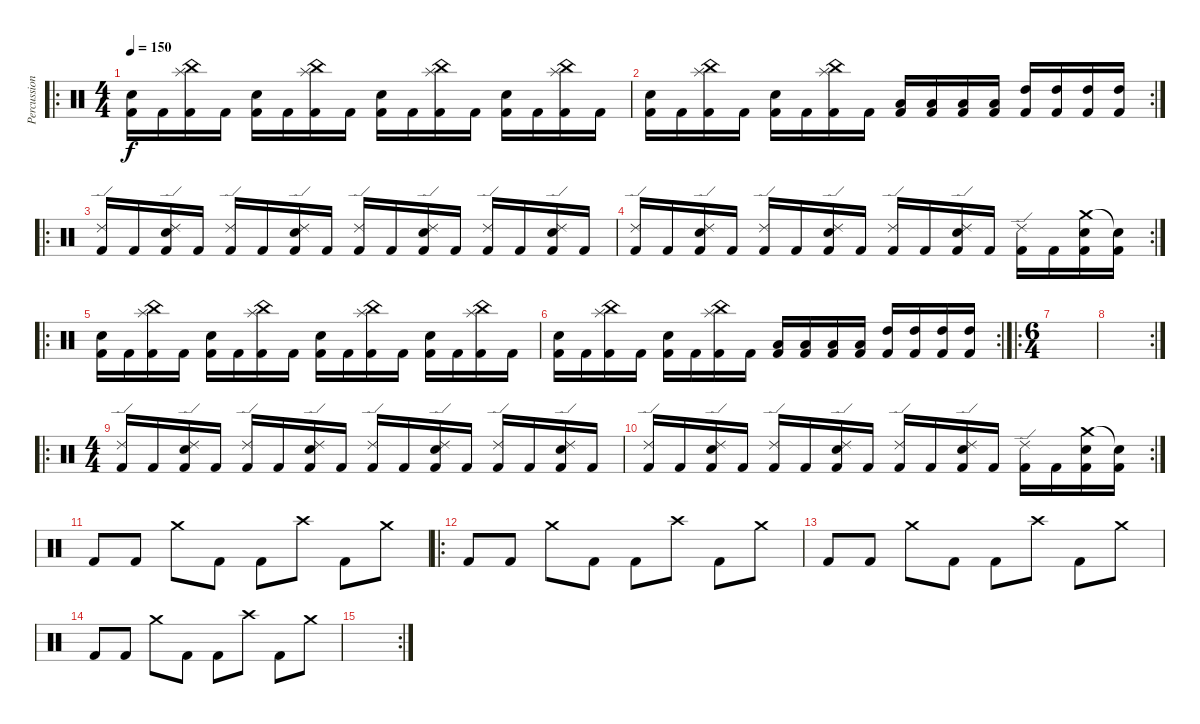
\track ("Percussion" "Percussion") {instrument percussion}
\staff {score}
\articulation defaults
\ro
\ts (4 4)
\tempo 150
\clef neutral
\ks c
("Electric Snare (hit)" "Kick (hit) 2").16{dy f} "Kick (hit) 2".16 ("Splash (hit)" "China (hit)" "Kick (hit) 2").16 "Kick (hit) 2".16 ("Electric Snare (hit)" "Kick (hit) 2").16 "Kick (hit) 2".16 ("Splash (hit)" "China (hit)" "Kick (hit) 2").16 "Kick (hit) 2".16 ("Electric Snare (hit)" "Kick (hit) 2").16 "Kick (hit) 2".16 ("Splash (hit)" "China (hit)" "Kick (hit) 2").16 "Kick (hit) 2".16 ("Electric Snare (hit)" "Kick (hit) 2").16 "Kick (hit) 2".16 ("Splash (hit)" "China (hit)" "Kick (hit) 2").16 "Kick (hit) 2".16 |
\rc 2
("Electric Snare (hit)" "Kick (hit) 2").16 "Kick (hit) 2".16 ("Splash (hit)" "China (hit)" "Kick (hit) 2").16 "Kick (hit) 2".16 ("Electric Snare (hit)" "Kick (hit) 2").16 "Kick (hit) 2".16 ("Splash (hit)" "China (hit)" "Kick (hit) 2").16 "Kick (hit) 2".16 ("Low Tom (hit)" "Kick (hit) 2").16 ("Low Tom (hit)" "Kick (hit) 2").16 ("Low Tom (hit)" "Kick (hit) 2").16 ("Low Tom (hit)" "Kick (hit) 2").16 ("High Tom (hit)" "Kick (hit) 2").16 ("High Tom (hit)" "Kick (hit) 2").16 ("High Tom (hit)" "Kick (hit) 2").16 ("High Tom (hit)" "Kick (hit) 2").16 |
\ro
("Ride (edge) 2" "Kick (hit) 2").16 "Kick (hit) 2".16 ("Ride (edge) 2" "Electric Snare (hit)" "Kick (hit) 2").16 "Kick (hit) 2".16 ("Ride (edge) 2" "Kick (hit) 2").16 "Kick (hit) 2".16 ("Ride (edge) 2" "Electric Snare (hit)" "Kick (hit) 2").16 "Kick (hit) 2".16 ("Ride (edge) 2" "Kick (hit) 2").16 "Kick (hit) 2".16 ("Ride (edge) 2" "Electric Snare (hit)" "Kick (hit) 2").16 "Kick (hit) 2".16 ("Ride (edge) 2" "Kick (hit) 2").16 "Kick (hit) 2".16 ("Ride (edge) 2" "Electric Snare (hit)" "Kick (hit) 2").16 "Kick (hit) 2".16 |
\rc 2
("Ride (edge) 2" "Kick (hit) 2").16 "Kick (hit) 2".16 ("Ride (edge) 2" "Electric Snare (hit)" "Kick (hit) 2").16 "Kick (hit) 2".16 ("Ride (edge) 2" "Kick (hit) 2").16 "Kick (hit) 2".16 ("Ride (edge) 2" "Electric Snare (hit)" "Kick (hit) 2").16 "Kick (hit) 2".16 ("Ride (edge) 2" "Kick (hit) 2").16 "Kick (hit) 2".16 ("Ride (edge) 2" "Electric Snare (hit)" "Kick (hit) 2").16 "Kick (hit) 2".16 ("Ride (edge) 2" "Kick (hit) 2").16 "Kick (hit) 2".16 ("Crash medium (hit)" "Electric Snare (hit)" "Kick (hit) 2").16 ("Snare (hit)"{t} "Kick (hit) 2").16 |
\ro
("Electric Snare (hit)" "Kick (hit) 2").16 "Kick (hit) 2".16 ("Splash (hit)" "China (hit)" "Kick (hit) 2").16 "Kick (hit) 2".16 ("Electric Snare (hit)" "Kick (hit) 2").16 "Kick (hit) 2".16 ("Splash (hit)" "China (hit)" "Kick (hit) 2").16 "Kick (hit) 2".16 ("Electric Snare (hit)" "Kick (hit) 2").16 "Kick (hit) 2".16 ("Splash (hit)" "China (hit)" "Kick (hit) 2").16 "Kick (hit) 2".16 ("Electric Snare (hit)" "Kick (hit) 2").16 "Kick (hit) 2".16 ("Splash (hit)" "China (hit)" "Kick (hit) 2").16 "Kick (hit) 2".16 |
\rc 2
("Electric Snare (hit)" "Kick (hit) 2").16 "Kick (hit) 2".16 ("Splash (hit)" "China (hit)" "Kick (hit) 2").16 "Kick (hit) 2".16 ("Electric Snare (hit)" "Kick (hit) 2").16 "Kick (hit) 2".16 ("Splash (hit)" "China (hit)" "Kick (hit) 2").16 "Kick (hit) 2".16 ("Low Tom (hit)" "Kick (hit) 2").16 ("Low Tom (hit)" "Kick (hit) 2").16 ("Low Tom (hit)" "Kick (hit) 2").16 ("Low Tom (hit)" "Kick (hit) 2").16 ("High Tom (hit)" "Kick (hit) 2").16 ("High Tom (hit)" "Kick (hit) 2").16 ("High Tom (hit)" "Kick (hit) 2").16 ("High Tom (hit)" "Kick (hit) 2").16 |
\ro
\ts (6 4)
|
\rc 2
|
\ro
\ts (4 4)
("Ride (edge) 2" "Kick (hit) 2").16 "Kick (hit) 2".16 ("Ride (edge) 2" "Electric Snare (hit)" "Kick (hit) 2").16 "Kick (hit) 2".16 ("Ride (edge) 2" "Kick (hit) 2").16 "Kick (hit) 2".16 ("Ride (edge) 2" "Electric Snare (hit)" "Kick (hit) 2").16 "Kick (hit) 2".16 ("Ride (edge) 2" "Kick (hit) 2").16 "Kick (hit) 2".16 ("Ride (edge) 2" "Electric Snare (hit)" "Kick (hit) 2").16 "Kick (hit) 2".16 ("Ride (edge) 2" "Kick (hit) 2").16 "Kick (hit) 2".16 ("Ride (edge) 2" "Electric Snare (hit)" "Kick (hit) 2").16 "Kick (hit) 2".16 |
\rc 2
("Ride (edge) 2" "Kick (hit) 2").16 "Kick (hit) 2".16 ("Ride (edge) 2" "Electric Snare (hit)" "Kick (hit) 2").16 "Kick (hit) 2".16 ("Ride (edge) 2" "Kick (hit) 2").16 "Kick (hit) 2".16 ("Ride (edge) 2" "Electric Snare (hit)" "Kick (hit) 2").16 "Kick (hit) 2".16 ("Ride (edge) 2" "Kick (hit) 2").16 "Kick (hit) 2".16 ("Ride (edge) 2" "Electric Snare (hit)" "Kick (hit) 2").16 "Kick (hit) 2".16 ("Ride (edge) 2" "Kick (hit) 2").16 "Kick (hit) 2".16 ("Crash medium (hit)" "Electric Snare (hit)" "Kick (hit) 2").16 ("Snare (hit)"{t} "Kick (hit) 2").16 |
"Kick (hit) 2".8 "Kick (hit) 2".8 "Crash medium (hit)".8 "Kick (hit) 2".8 "Kick (hit) 2".8 "Crash high (hit)".8 "Kick (hit) 2".8 "Crash medium (hit)".8 |
\ro "Kick (hit) 2".8 "Kick (hit) 2".8 "Crash medium (hit)".8 "Kick (hit) 2".8 "Kick (hit) 2".8 "Crash high (hit)".8 "Kick (hit) 2".8 "Crash medium (hit)".8
|
"Kick (hit) 2".8 "Kick (hit) 2".8 "Crash medium (hit)".8 "Kick (hit) 2".8 "Kick (hit) 2".8 "Crash high (hit)".8 "Kick (hit) 2".8 "Crash medium (hit)".8 |
"Kick (hit) 2".8 "Kick (hit) 2".8 "Crash medium (hit)".8 "Kick (hit) 2".8 "Kick (hit) 2".8 "Crash high (hit)".8 "Kick (hit) 2".8 "Crash medium (hit)".8 |
\rc 2
